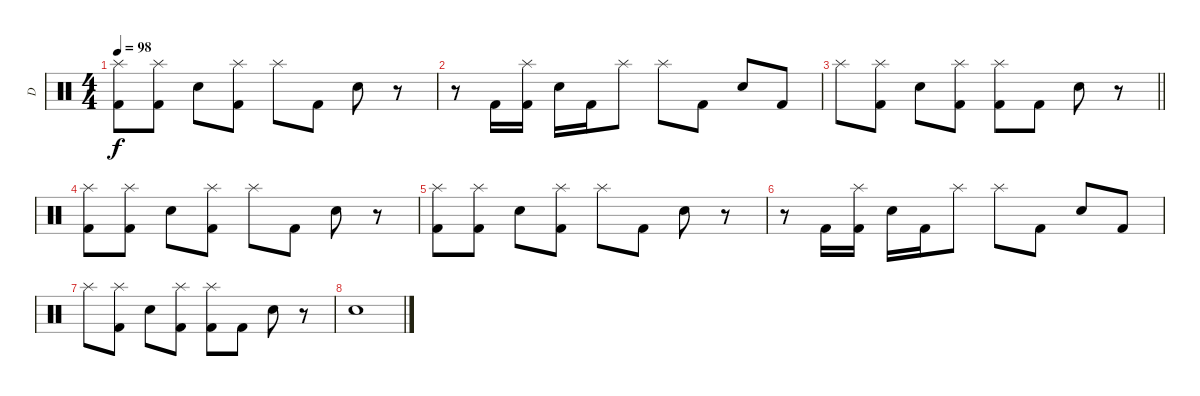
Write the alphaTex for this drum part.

\track ("D" "D") {instrument percussion}
\staff {score}
\articulation defaults
\ts (4 4)
\tempo 98
\clef neutral
\ks c
("Kick (hit) 2" "Splash (hit)").8{dy f} ("Kick (hit) 2" "Splash (hit)").8 "Electric Snare (hit)".8 ("Kick (hit) 2" "Splash (hit)").8 "Splash (hit)".8 "Kick (hit) 2".8 "Electric Snare (hit)".8 r.8 |
r.8 "Kick (hit) 2".16 ("Kick (hit) 2" "Splash (hit)").16 "Electric Snare (hit)".16 "Kick (hit) 2".16 "Splash (hit)".8 "Splash (hit)".8 "Kick (hit) 2".8 "Electric Snare (hit)".8 "Kick (hit) 2".8 |
\barLineRight lightlight "Splash (hit)".8
("Kick (hit) 2" "Splash (hit)").8 "Electric Snare (hit)".8 ("Kick (hit) 2" "Splash (hit)").8 ("Kick (hit) 2" "Splash (hit)").8 "Kick (hit) 2".8 "Electric Snare (hit)".8 r.8 |
("Kick (hit) 2" "Splash (hit)").8 ("Kick (hit) 2" "Splash (hit)").8 "Electric Snare (hit)".8 ("Kick (hit) 2" "Splash (hit)").8 "Splash (hit)".8 "Kick (hit) 2".8 "Electric Snare (hit)".8 r.8 |
("Kick (hit) 2" "Splash (hit)").8 ("Kick (hit) 2" "Splash (hit)").8 "Electric Snare (hit)".8 ("Kick (hit) 2" "Splash (hit)").8 "Splash (hit)".8 "Kick (hit) 2".8 "Electric Snare (hit)".8 r.8 |
r.8 "Kick (hit) 2".16 ("Kick (hit) 2" "Splash (hit)").16 "Electric Snare (hit)".16 "Kick (hit) 2".16 "Splash (hit)".8 "Splash (hit)".8 "Kick (hit) 2".8 "Electric Snare (hit)".8 "Kick (hit) 2".8 |
"Splash (hit)".8 ("Kick (hit) 2" "Splash (hit)").8 "Electric Snare (hit)".8 ("Kick (hit) 2" "Splash (hit)").8 ("Kick (hit) 2" "Splash (hit)").8 "Kick (hit) 2".8 "Electric Snare (hit)".8 r.8 |
"Electric Snare (hit)".1
